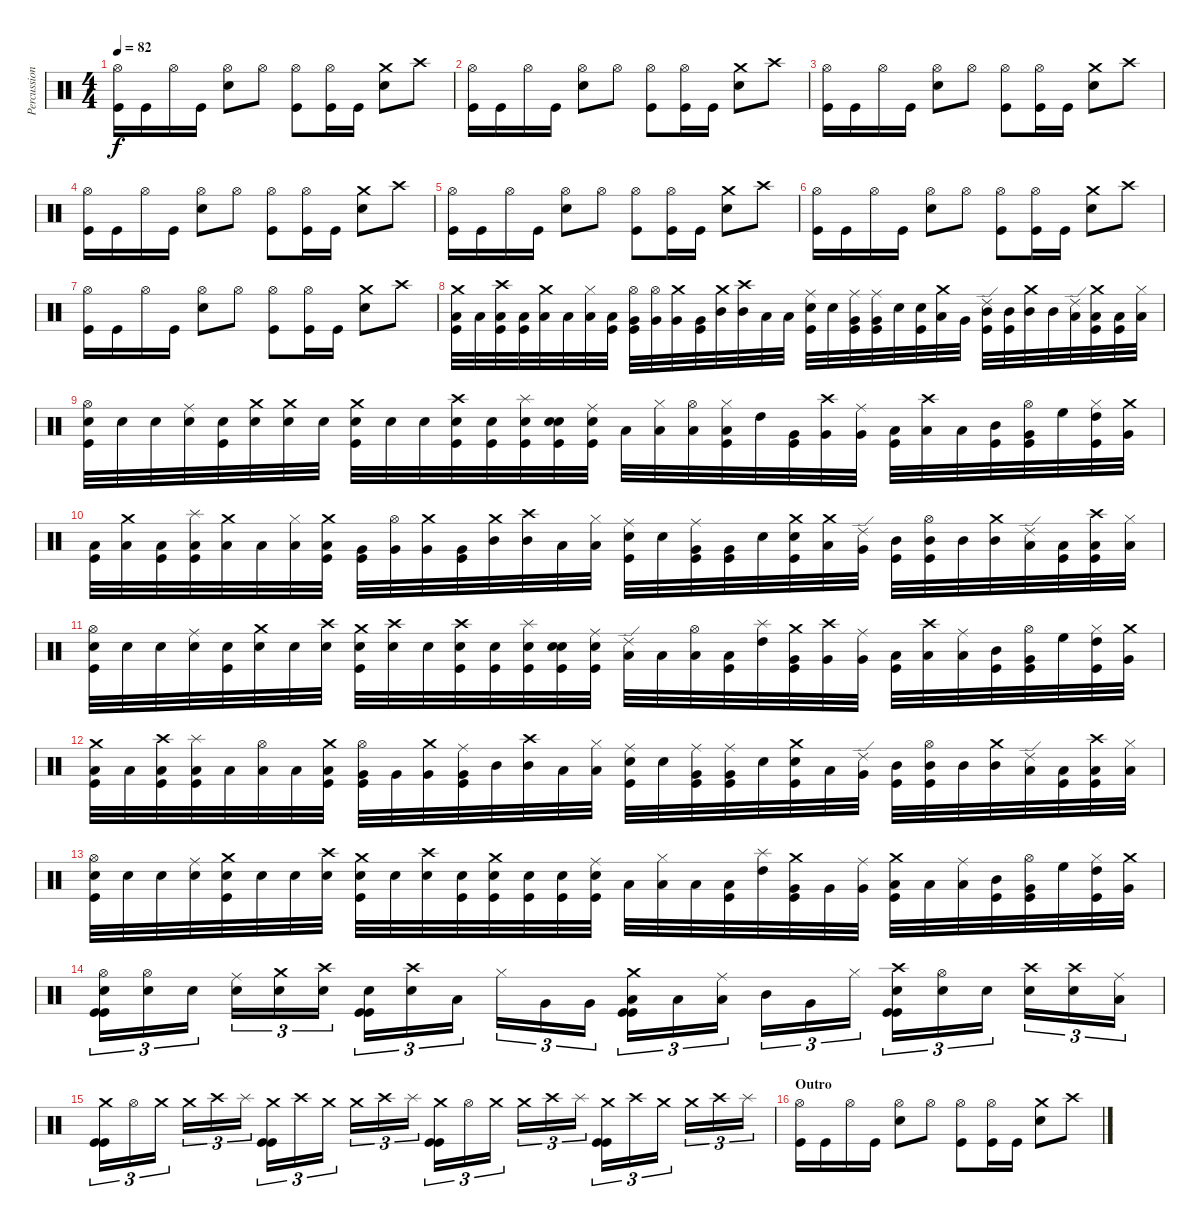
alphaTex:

\track ("Percussion" "Percussion") {instrument percussion}
\staff {score}
\articulation defaults
\ts (4 4)
\tempo 82
\clef neutral
\ks c
("Hi-Hat (open)" "Kick (hit)").16{dy f} "Kick (hit)".16 "Hi-Hat (open)".16 "Kick (hit)".16 ("Hi-Hat (open)" "Snare (hit) 2").8 "Hi-Hat (open)".8 ("Hi-Hat (open)" "Kick (hit)").8 ("Hi-Hat (open)" "Kick (hit)").16 "Kick (hit)".16 ("Crash medium (hit)" "Snare (hit) 2").8 "Crash high (hit)".8 |
("Hi-Hat (open)" "Kick (hit)").16 "Kick (hit)".16 "Hi-Hat (open)".16 "Kick (hit)".16 ("Hi-Hat (open)" "Snare (hit) 2").8 "Hi-Hat (open)".8 ("Hi-Hat (open)" "Kick (hit)").8 ("Hi-Hat (open)" "Kick (hit)").16 "Kick (hit)".16 ("Crash medium (hit)" "Snare (hit) 2").8 "Crash high (hit)".8 |
("Hi-Hat (open)" "Kick (hit)").16 "Kick (hit)".16 "Hi-Hat (open)".16 "Kick (hit)".16 ("Hi-Hat (open)" "Snare (hit) 2").8 "Hi-Hat (open)".8 ("Hi-Hat (open)" "Kick (hit)").8 ("Hi-Hat (open)" "Kick (hit)").16 "Kick (hit)".16 ("Crash medium (hit)" "Snare (hit) 2").8 "Crash high (hit)".8 |
("Hi-Hat (open)" "Kick (hit)").16 "Kick (hit)".16 "Hi-Hat (open)".16 "Kick (hit)".16 ("Hi-Hat (open)" "Snare (hit) 2").8 "Hi-Hat (open)".8 ("Hi-Hat (open)" "Kick (hit)").8 ("Hi-Hat (open)" "Kick (hit)").16 "Kick (hit)".16 ("Crash medium (hit)" "Snare (hit) 2").8 "Crash high (hit)".8 |
("Hi-Hat (open)" "Kick (hit)").16 "Kick (hit)".16 "Hi-Hat (open)".16 "Kick (hit)".16 ("Hi-Hat (open)" "Snare (hit) 2").8 "Hi-Hat (open)".8 ("Hi-Hat (open)" "Kick (hit)").8 ("Hi-Hat (open)" "Kick (hit)").16 "Kick (hit)".16 ("Crash medium (hit)" "Snare (hit) 2").8 "Crash high (hit)".8 |
("Hi-Hat (open)" "Kick (hit)").16 "Kick (hit)".16 "Hi-Hat (open)".16 "Kick (hit)".16 ("Hi-Hat (open)" "Snare (hit) 2").8 "Hi-Hat (open)".8 ("Hi-Hat (open)" "Kick (hit)").8 ("Hi-Hat (open)" "Kick (hit)").16 "Kick (hit)".16 ("Crash medium (hit)" "Snare (hit) 2").8 "Crash high (hit)".8 |
("Hi-Hat (open)" "Kick (hit)").16 "Kick (hit)".16 "Hi-Hat (open)".16 "Kick (hit)".16 ("Hi-Hat (open)" "Snare (hit) 2").8 "Hi-Hat (open)".8 ("Hi-Hat (open)" "Kick (hit)").8 ("Hi-Hat (open)" "Kick (hit)").16 "Kick (hit)".16 ("Crash medium (hit)" "Snare (hit) 2").8 "Crash high (hit)".8 |
("Crash medium (hit)" "Low Floor Tom (hit)" "Kick (hit)").32 "Low Floor Tom (hit)".32 ("Crash high (hit)" "Low Floor Tom (hit)" "Kick (hit)").32 ("Low Floor Tom (hit)" "Kick (hit)").32 ("Crash medium (hit)" "Low Floor Tom (hit)").32 "Low Floor Tom (hit)".32 ("Hi-Hat (closed)" "Low Floor Tom (hit)").32 ("Low Floor Tom (hit)" "Kick (hit)").32 ("Hi-Hat (open)" "Very Low Tom (hit)" "Kick (hit)").32 ("Hi-Hat (open)" "Very Low Tom (hit)").32 ("Crash medium (hit)" "Very Low Tom (hit)").32 ("Very Low Tom (hit)" "Kick (hit)").32 ("Crash medium (hit)" "Mid Tom (hit)").32 ("Crash high (hit)" "Mid Tom (hit)").32 "Low Tom (hit)".32 "Low Tom (hit)".32 ("Ride (middle)" "Snare (hit) 2" "Kick (hit)").32 "Snare (hit) 2".32 ("Ride (middle)" "Very Low Tom (hit)" "Kick (hit)").32 ("Ride (middle)" "Very Low Tom (hit)" "Kick (hit)").32 "Snare (hit) 2".32 ("Snare (hit) 2" "Kick (hit)").32 ("Crash medium (hit)" "Low Floor Tom (hit)").32 "Very Low Tom (hit)".32 ("Ride (edge) 2" "Mid Tom (hit)" "Kick (hit)").32 ("Mid Tom (hit)" "Kick (hit)").32 ("Crash medium (hit)" "Mid Tom (hit)").32 "Mid Tom (hit)".32 ("Ride (edge) 2" "Low Tom (hit)").32 ("Crash medium (hit)" "Low Tom (hit)" "Kick (hit)").32 ("Low Tom (hit)" "Kick (hit)").32 ("Hi-Hat (closed)" "Low Tom (hit)").32 |
("Hi-Hat (open)" "Snare (hit) 2" "Kick (hit)").32 "Snare (hit) 2".32 "Snare (hit) 2".32 ("Ride (middle)" "Snare (hit) 2").32 ("Snare (hit) 2" "Kick (hit)").32 ("Crash medium (hit)" "Snare (hit) 2").32 ("Crash medium (hit)" "Snare (hit) 2").32 "Snare (hit) 2".32 ("Crash medium (hit)" "Snare (hit) 2" "Kick (hit)").32 "Snare (hit) 2".32 "Snare (hit) 2".32 ("Crash high (hit)" "Snare (hit) 2" "Kick (hit)").32 ("Snare (hit) 2" "Kick (hit)").32 ("Splash (hit)" "Snare (hit) 2" "Kick (hit)").32 ("Snare (hit)" "Snare (hit) 2" "Kick (hit)").32 ("Ride (middle)" "Snare (hit) 2" "Kick (hit)").32 "Low Floor Tom (hit)".32 ("Hi-Hat (closed)" "Low Floor Tom (hit)").32 ("Hi-Hat (open)" "Low Tom (hit)").32 ("Hi-Hat (closed)" "Low Floor Tom (hit)" "Kick (hit)").32 "High Tom (hit)".32 ("Very Low Tom (hit)" "Kick (hit)").32 ("Crash high (hit)" "Very Low Tom (hit)").32 ("Ride (middle)" "Very Low Tom (hit)").32 ("Low Tom (hit)" "Kick (hit)").32 ("Crash high (hit)" "Low Tom (hit)").32 "Low Tom (hit)".32 ("Mid Tom (hit)" "Kick (hit)").32 ("Hi-Hat (open)" "Very Low Tom (hit)" "Kick (hit)").32 "High Floor Tom (hit)".32 ("Hi-Hat (closed)" "High Tom (hit)" "Kick (hit)").32 ("Crash medium (hit)" "Very Low Tom (hit)").32 |
("Low Floor Tom (hit)" "Kick (hit)").32 ("Crash medium (hit)" "Low Floor Tom (hit)").32 ("Low Floor Tom (hit)" "Kick (hit)").32 ("Splash (hit)" "Low Floor Tom (hit)" "Kick (hit)").32 ("Crash medium (hit)" "Low Floor Tom (hit)").32 "Low Floor Tom (hit)".32 ("Hi-Hat (closed)" "Low Floor Tom (hit)").32 ("Crash medium (hit)" "Low Floor Tom (hit)" "Kick (hit)").32 ("Very Low Tom (hit)" "Kick (hit)").32 ("Hi-Hat (open)" "Very Low Tom (hit)").32 ("Crash medium (hit)" "Very Low Tom (hit)").32 ("Very Low Tom (hit)" "Kick (hit)").32 ("Crash medium (hit)" "Mid Tom (hit)").32 ("Crash high (hit)" "Mid Tom (hit)").32 "Low Tom (hit)".32 ("Hi-Hat (closed)" "Low Tom (hit)").32 ("Ride (middle)" "Snare (hit) 2" "Kick (hit)").32 "Snare (hit) 2".32 ("Ride (middle)" "Very Low Tom (hit)" "Kick (hit)").32 ("Very Low Tom (hit)" "Kick (hit)").32 "Snare (hit) 2".32 ("Crash medium (hit)" "Snare (hit) 2" "Kick (hit)").32 ("Crash medium (hit)" "Low Floor Tom (hit)").32 ("Ride (edge) 2" "Very Low Tom (hit)").32 ("Mid Tom (hit)" "Kick (hit)").32 ("Hi-Hat (open)" "Mid Tom (hit)" "Kick (hit)").32 "Mid Tom (hit)".32 ("Crash medium (hit)" "Mid Tom (hit)").32 ("Ride (edge) 2" "Low Tom (hit)").32 ("Low Tom (hit)" "Kick (hit)").32 ("Crash high (hit)" "Low Tom (hit)" "Kick (hit)").32 ("Hi-Hat (closed)" "Low Tom (hit)").32 |
("Hi-Hat (open)" "Snare (hit) 2" "Kick (hit)").32 "Snare (hit) 2".32 "Snare (hit) 2".32 ("Ride (middle)" "Snare (hit) 2").32 ("Snare (hit) 2" "Kick (hit)").32 ("Crash medium (hit)" "Snare (hit) 2").32 "Snare (hit) 2".32 ("Crash high (hit)" "Snare (hit) 2").32 ("Crash medium (hit)" "Snare (hit) 2" "Kick (hit)").32 ("Crash high (hit)" "Snare (hit) 2").32 "Snare (hit) 2".32 ("Crash high (hit)" "Snare (hit) 2" "Kick (hit)").32 ("Snare (hit) 2" "Kick (hit)").32 ("Splash (hit)" "Snare (hit) 2" "Kick (hit)").32 ("Snare (hit)" "Snare (hit) 2" "Kick (hit)").32 ("Ride (middle)" "Snare (hit) 2" "Kick (hit)").32 ("Ride (edge) 2" "Low Floor Tom (hit)").32 "Low Floor Tom (hit)".32 ("Hi-Hat (open)" "Low Tom (hit)").32 ("Low Floor Tom (hit)" "Kick (hit)").32 ("Splash (hit)" "High Tom (hit)").32 ("Crash medium (hit)" "Very Low Tom (hit)" "Kick (hit)").32 ("Crash high (hit)" "Very Low Tom (hit)").32 ("Ride (middle)" "Very Low Tom (hit)").32 ("Low Tom (hit)" "Kick (hit)").32 ("Crash high (hit)" "Low Tom (hit)").32 ("Ride (middle)" "Low Tom (hit)").32 ("Mid Tom (hit)" "Kick (hit)").32 ("Hi-Hat (open)" "Very Low Tom (hit)" "Kick (hit)").32 "High Floor Tom (hit)".32 ("Hi-Hat (closed)" "High Tom (hit)" "Kick (hit)").32 ("Crash medium (hit)" "Very Low Tom (hit)").32 |
("Crash medium (hit)" "Low Floor Tom (hit)" "Kick (hit)").32 "Low Floor Tom (hit)".32 ("Crash high (hit)" "Low Floor Tom (hit)" "Kick (hit)").32 ("Splash (hit)" "Low Floor Tom (hit)" "Kick (hit)").32 "Low Floor Tom (hit)".32 ("Hi-Hat (open)" "Low Floor Tom (hit)").32 "Low Floor Tom (hit)".32 ("Crash medium (hit)" "Low Floor Tom (hit)" "Kick (hit)").32 ("Hi-Hat (open)" "Very Low Tom (hit)" "Kick (hit)").32 "Very Low Tom (hit)".32 ("Crash medium (hit)" "Very Low Tom (hit)").32 ("Ride (middle)" "Very Low Tom (hit)" "Kick (hit)").32 "Mid Tom (hit)".32 ("Crash high (hit)" "Mid Tom (hit)").32 "Low Tom (hit)".32 ("Hi-Hat (closed)" "Low Tom (hit)").32 ("Ride (middle)" "Snare (hit) 2" "Kick (hit)").32 "Snare (hit) 2".32 ("Ride (middle)" "Very Low Tom (hit)" "Kick (hit)").32 ("Ride (middle)" "Very Low Tom (hit)" "Kick (hit)").32 "Snare (hit) 2".32 ("Crash medium (hit)" "Snare (hit) 2" "Kick (hit)").32 "Low Floor Tom (hit)".32 ("Ride (edge) 2" "Very Low Tom (hit)").32 ("Mid Tom (hit)" "Kick (hit)").32 ("Hi-Hat (open)" "Mid Tom (hit)" "Kick (hit)").32 "Mid Tom (hit)".32 ("Crash medium (hit)" "Mid Tom (hit)").32 ("Ride (edge) 2" "Low Tom (hit)").32 ("Low Tom (hit)" "Kick (hit)").32 ("Crash high (hit)" "Low Tom (hit)" "Kick (hit)").32 ("Hi-Hat (closed)" "Low Tom (hit)").32 |
("Hi-Hat (open)" "Snare (hit) 2" "Kick (hit)").32 "Snare (hit) 2".32 "Snare (hit) 2".32 ("Ride (middle)" "Snare (hit) 2").32 ("Crash medium (hit)" "Snare (hit) 2" "Kick (hit)").32 "Snare (hit) 2".32 "Snare (hit) 2".32 ("Crash high (hit)" "Snare (hit) 2").32 ("Crash medium (hit)" "Snare (hit) 2" "Kick (hit)").32 "Snare (hit) 2".32 ("Crash high (hit)" "Snare (hit) 2").32 ("Snare (hit) 2" "Kick (hit)").32 ("Crash medium (hit)" "Snare (hit) 2" "Kick (hit)").32 ("Snare (hit) 2" "Kick (hit)").32 ("Snare (hit) 2" "Kick (hit)").32 ("Ride (middle)" "Snare (hit) 2" "Kick (hit)").32 "Low Floor Tom (hit)".32 ("Hi-Hat (closed)" "Low Floor Tom (hit)").32 "Low Tom (hit)".32 ("Low Floor Tom (hit)" "Kick (hit)").32 ("Splash (hit)" "High Tom (hit)").32 ("Crash medium (hit)" "Very Low Tom (hit)" "Kick (hit)").32 "Very Low Tom (hit)".32 ("Ride (middle)" "Very Low Tom (hit)").32 ("Crash medium (hit)" "Low Tom (hit)" "Kick (hit)").32 "Low Tom (hit)".32 ("Ride (middle)" "Low Tom (hit)").32 ("Mid Tom (hit)" "Kick (hit)").32 ("Hi-Hat (open)" "Very Low Tom (hit)" "Kick (hit)").32 "High Floor Tom (hit)".32 ("Hi-Hat (closed)" "High Tom (hit)" "Kick (hit)").32 ("Crash medium (hit)" "Very Low Tom (hit)").32 |
("Hi-Hat (open)" "Snare (hit) 2" "Kick (hit)" "Kick (hit)").16{tu (3 2)} ("Hi-Hat (open)" "Snare (hit) 2").16{tu (3 2)} "Snare (hit) 2".16{tu (3 2)} ("Ride (middle)" "Snare (hit) 2").16{tu (3 2)} ("Crash medium (hit)" "Snare (hit) 2").16{tu (3 2)} ("Crash high (hit)" "Snare (hit) 2").16{tu (3 2)} ("Snare (hit) 2" "Kick (hit)" "Kick (hit)").16{tu (3 2)} ("Crash high (hit)" "Snare (hit) 2").16{tu (3 2)} "Low Floor Tom (hit)".16{tu (3 2)} "Hi-Hat (closed)".16{tu (3 2)} "Very Low Tom (hit)".16{tu (3 2)} "Very Low Tom (hit)".16{tu (3 2)} ("Crash medium (hit)" "Low Tom (hit)" "Kick (hit)" "Kick (hit)").16{tu (3 2)} "Low Tom (hit)".16{tu (3 2)} ("Ride (middle)" "Low Tom (hit)").16{tu (3 2)} "Mid Tom (hit)".16{tu (3 2)} "Very Low Tom (hit)".16{tu (3 2)} "Hi-Hat (closed)".16{tu (3 2)} ("Crash high (hit)" "Snare (hit) 2" "Kick (hit)" "Kick (hit)").16{tu (3 2)} ("Hi-Hat (open)" "Snare (hit) 2").16{tu (3 2)} "Snare (hit) 2".16{tu (3 2)} ("Crash high (hit)" "Snare (hit) 2").16{tu (3 2)} ("Crash high (hit)" "Snare (hit) 2").16{tu (3 2)} ("Ride (middle)" "Low Tom (hit)").16{tu (3 2)} |
("Crash medium (hit)" "Kick (hit)" "Kick (hit)").16{tu (3 2)} "Hi-Hat (open)".16{tu (3 2)} "Crash medium (hit)".16{tu (3 2)} "Crash medium (hit)".16{tu (3 2)} "Crash high (hit)".16{tu (3 2)} "Splash (hit)".16{tu (3 2)} ("Crash medium (hit)" "Kick (hit)" "Kick (hit)").16{tu (3 2)} "Crash high (hit)".16{tu (3 2)} "Crash medium (hit)".16{tu (3 2)} "Crash medium (hit)".16{tu (3 2)} "Crash high (hit)".16{tu (3 2)} "Splash (hit)".16{tu (3 2)} ("Crash medium (hit)" "Kick (hit)" "Kick (hit)").16{tu (3 2)} "Hi-Hat (open)".16{tu (3 2)} "Crash medium (hit)".16{tu (3 2)} "Crash medium (hit)".16{tu (3 2)} "Crash high (hit)".16{tu (3 2)} "Splash (hit)".16{tu (3 2)} ("Crash medium (hit)" "Kick (hit)" "Kick (hit)").16{tu (3 2)} "Crash high (hit)".16{tu (3 2)} "Crash medium (hit)".16{tu (3 2)} "Crash medium (hit)".16{tu (3 2)} "Crash high (hit)".16{tu (3 2)} "Splash (hit)".16{tu (3 2)} |
\section ("" "Outro")
("Hi-Hat (open)" "Kick (hit)").16 "Kick (hit)".16 "Hi-Hat (open)".16 "Kick (hit)".16 ("Hi-Hat (open)" "Snare (hit) 2").8 "Hi-Hat (open)".8 ("Hi-Hat (open)" "Kick (hit)").8 ("Hi-Hat (open)" "Kick (hit)").16 "Kick (hit)".16 ("Crash medium (hit)" "Snare (hit) 2").8 "Crash high (hit)".8
